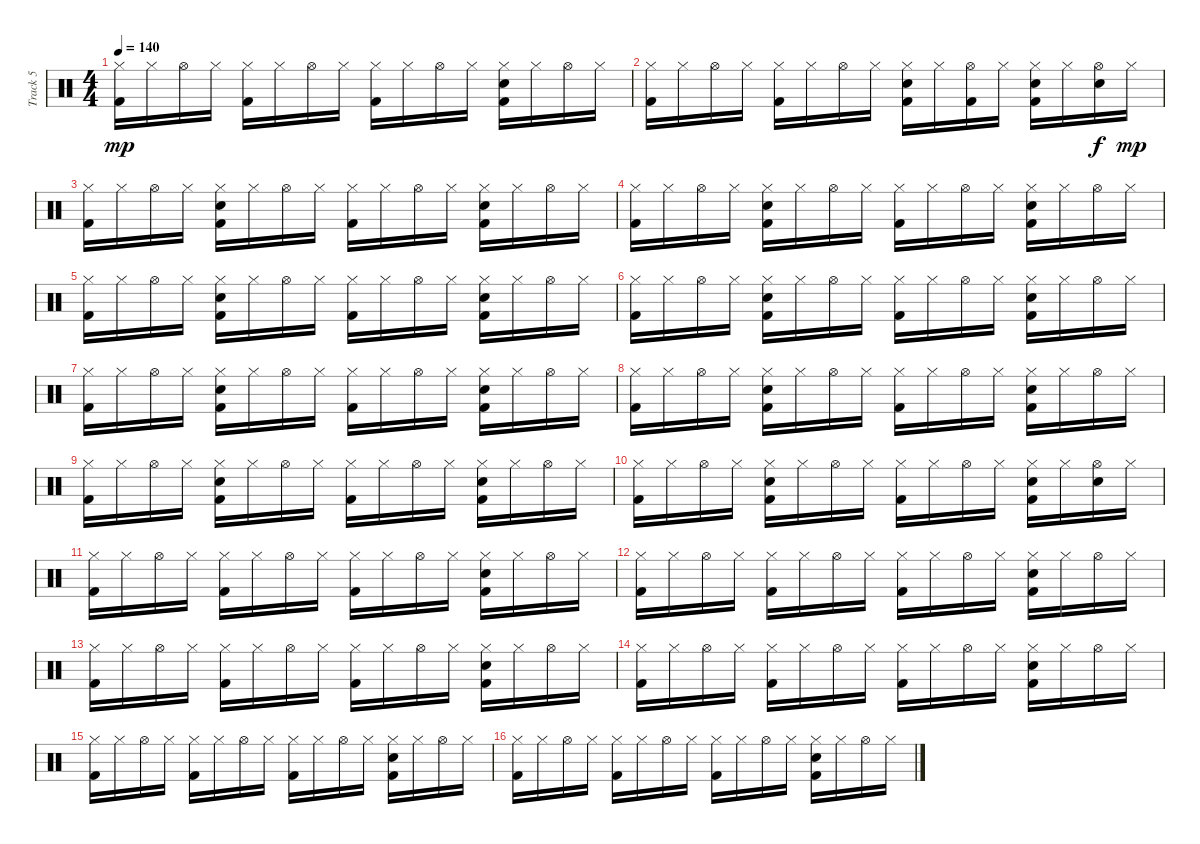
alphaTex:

\track ("Track 5" "Track 5") {instrument percussion}
\staff {score}
\articulation defaults
\ts (4 4)
\tempo 140
\clef neutral
\ks c
("Hi-Hat (closed)" "Kick (hit) 2").16{dy mp} "Hi-Hat (closed)".16 "Hi-Hat (open)".16 "Hi-Hat (closed)".16 ("Hi-Hat (closed)" "Kick (hit) 2").16 "Hi-Hat (closed)".16 "Hi-Hat (open)".16 "Hi-Hat (closed)".16 ("Hi-Hat (closed)" "Kick (hit) 2").16 "Hi-Hat (closed)".16 "Hi-Hat (open)".16 "Hi-Hat (closed)".16 ("Hi-Hat (closed)" "Electric Snare (hit)" "Kick (hit) 2").16 "Hi-Hat (closed)".16 "Hi-Hat (open)".16 "Hi-Hat (closed)".16 |
("Hi-Hat (closed)" "Kick (hit) 2").16 "Hi-Hat (closed)".16 "Hi-Hat (open)".16 "Hi-Hat (closed)".16 ("Hi-Hat (closed)" "Kick (hit) 2").16 "Hi-Hat (closed)".16 "Hi-Hat (open)".16 "Hi-Hat (closed)".16 ("Hi-Hat (closed)" "Electric Snare (hit)" "Kick (hit) 2").16 "Hi-Hat (closed)".16 ("Hi-Hat (open)" "Kick (hit) 2").16 "Hi-Hat (closed)".16 ("Hi-Hat (closed)" "Electric Snare (hit)" "Kick (hit) 2").16 "Hi-Hat (closed)".16 ("Hi-Hat (open)" "Electric Snare (hit)").16{dy f} "Hi-Hat (closed)".16{dy mp} |
("Hi-Hat (closed)" "Kick (hit) 2").16 "Hi-Hat (closed)".16 "Hi-Hat (open)".16 "Hi-Hat (closed)".16 ("Hi-Hat (closed)" "Electric Snare (hit)" "Kick (hit) 2").16 "Hi-Hat (closed)".16 "Hi-Hat (open)".16 "Hi-Hat (closed)".16 ("Hi-Hat (closed)" "Kick (hit) 2").16 "Hi-Hat (closed)".16 "Hi-Hat (open)".16 "Hi-Hat (closed)".16 ("Hi-Hat (closed)" "Electric Snare (hit)" "Kick (hit) 2").16 "Hi-Hat (closed)".16 "Hi-Hat (open)".16 "Hi-Hat (closed)".16 |
("Hi-Hat (closed)" "Kick (hit) 2").16 "Hi-Hat (closed)".16 "Hi-Hat (open)".16 "Hi-Hat (closed)".16 ("Hi-Hat (closed)" "Electric Snare (hit)" "Kick (hit) 2").16 "Hi-Hat (closed)".16 "Hi-Hat (open)".16 "Hi-Hat (closed)".16 ("Hi-Hat (closed)" "Kick (hit) 2").16 "Hi-Hat (closed)".16 "Hi-Hat (open)".16 "Hi-Hat (closed)".16 ("Hi-Hat (closed)" "Electric Snare (hit)" "Kick (hit) 2").16 "Hi-Hat (closed)".16 "Hi-Hat (open)".16 "Hi-Hat (closed)".16 |
("Hi-Hat (closed)" "Kick (hit) 2").16 "Hi-Hat (closed)".16 "Hi-Hat (open)".16 "Hi-Hat (closed)".16 ("Hi-Hat (closed)" "Electric Snare (hit)" "Kick (hit) 2").16 "Hi-Hat (closed)".16 "Hi-Hat (open)".16 "Hi-Hat (closed)".16 ("Hi-Hat (closed)" "Kick (hit) 2").16 "Hi-Hat (closed)".16 "Hi-Hat (open)".16 "Hi-Hat (closed)".16 ("Hi-Hat (closed)" "Electric Snare (hit)" "Kick (hit) 2").16 "Hi-Hat (closed)".16 "Hi-Hat (open)".16 "Hi-Hat (closed)".16 |
("Hi-Hat (closed)" "Kick (hit) 2").16 "Hi-Hat (closed)".16 "Hi-Hat (open)".16 "Hi-Hat (closed)".16 ("Hi-Hat (closed)" "Electric Snare (hit)" "Kick (hit) 2").16 "Hi-Hat (closed)".16 "Hi-Hat (open)".16 "Hi-Hat (closed)".16 ("Hi-Hat (closed)" "Kick (hit) 2").16 "Hi-Hat (closed)".16 "Hi-Hat (open)".16 "Hi-Hat (closed)".16 ("Hi-Hat (closed)" "Electric Snare (hit)" "Kick (hit) 2").16 "Hi-Hat (closed)".16 "Hi-Hat (open)".16 "Hi-Hat (closed)".16 |
("Hi-Hat (closed)" "Kick (hit) 2").16 "Hi-Hat (closed)".16 "Hi-Hat (open)".16 "Hi-Hat (closed)".16 ("Hi-Hat (closed)" "Electric Snare (hit)" "Kick (hit) 2").16 "Hi-Hat (closed)".16 "Hi-Hat (open)".16 "Hi-Hat (closed)".16 ("Hi-Hat (closed)" "Kick (hit) 2").16 "Hi-Hat (closed)".16 "Hi-Hat (open)".16 "Hi-Hat (closed)".16 ("Hi-Hat (closed)" "Electric Snare (hit)" "Kick (hit) 2").16 "Hi-Hat (closed)".16 "Hi-Hat (open)".16 "Hi-Hat (closed)".16 |
("Hi-Hat (closed)" "Kick (hit) 2").16 "Hi-Hat (closed)".16 "Hi-Hat (open)".16 "Hi-Hat (closed)".16 ("Hi-Hat (closed)" "Electric Snare (hit)" "Kick (hit) 2").16 "Hi-Hat (closed)".16 "Hi-Hat (open)".16 "Hi-Hat (closed)".16 ("Hi-Hat (closed)" "Kick (hit) 2").16 "Hi-Hat (closed)".16 "Hi-Hat (open)".16 "Hi-Hat (closed)".16 ("Hi-Hat (closed)" "Electric Snare (hit)" "Kick (hit) 2").16 "Hi-Hat (closed)".16 "Hi-Hat (open)".16 "Hi-Hat (closed)".16 |
("Hi-Hat (closed)" "Kick (hit) 2").16 "Hi-Hat (closed)".16 "Hi-Hat (open)".16 "Hi-Hat (closed)".16 ("Hi-Hat (closed)" "Electric Snare (hit)" "Kick (hit) 2").16 "Hi-Hat (closed)".16 "Hi-Hat (open)".16 "Hi-Hat (closed)".16 ("Hi-Hat (closed)" "Kick (hit) 2").16 "Hi-Hat (closed)".16 "Hi-Hat (open)".16 "Hi-Hat (closed)".16 ("Hi-Hat (closed)" "Electric Snare (hit)" "Kick (hit) 2").16 "Hi-Hat (closed)".16 "Hi-Hat (open)".16 "Hi-Hat (closed)".16 |
("Hi-Hat (closed)" "Kick (hit) 2").16 "Hi-Hat (closed)".16 "Hi-Hat (open)".16 "Hi-Hat (closed)".16 ("Hi-Hat (closed)" "Electric Snare (hit)" "Kick (hit) 2").16 "Hi-Hat (closed)".16 "Hi-Hat (open)".16 "Hi-Hat (closed)".16 ("Hi-Hat (closed)" "Kick (hit) 2").16 "Hi-Hat (closed)".16 "Hi-Hat (open)".16 "Hi-Hat (closed)".16 ("Hi-Hat (closed)" "Electric Snare (hit)" "Kick (hit) 2").16 "Hi-Hat (closed)".16 ("Hi-Hat (open)" "Electric Snare (hit)").16 "Hi-Hat (closed)".16 |
("Hi-Hat (closed)" "Kick (hit) 2").16 "Hi-Hat (closed)".16 "Hi-Hat (open)".16 "Hi-Hat (closed)".16 ("Hi-Hat (closed)" "Kick (hit) 2").16 "Hi-Hat (closed)".16 "Hi-Hat (open)".16 "Hi-Hat (closed)".16 ("Hi-Hat (closed)" "Kick (hit) 2").16 "Hi-Hat (closed)".16 "Hi-Hat (open)".16 "Hi-Hat (closed)".16 ("Hi-Hat (closed)" "Electric Snare (hit)" "Kick (hit) 2").16 "Hi-Hat (closed)".16 "Hi-Hat (open)".16 "Hi-Hat (closed)".16 |
("Hi-Hat (closed)" "Kick (hit) 2").16 "Hi-Hat (closed)".16 "Hi-Hat (open)".16 "Hi-Hat (closed)".16 ("Hi-Hat (closed)" "Kick (hit) 2").16 "Hi-Hat (closed)".16 "Hi-Hat (open)".16 "Hi-Hat (closed)".16 ("Hi-Hat (closed)" "Kick (hit) 2").16 "Hi-Hat (closed)".16 "Hi-Hat (open)".16 "Hi-Hat (closed)".16 ("Hi-Hat (closed)" "Electric Snare (hit)" "Kick (hit) 2").16 "Hi-Hat (closed)".16 "Hi-Hat (open)".16 "Hi-Hat (closed)".16 |
("Hi-Hat (closed)" "Kick (hit) 2").16 "Hi-Hat (closed)".16 "Hi-Hat (open)".16 "Hi-Hat (closed)".16 ("Hi-Hat (closed)" "Kick (hit) 2").16 "Hi-Hat (closed)".16 "Hi-Hat (open)".16 "Hi-Hat (closed)".16 ("Hi-Hat (closed)" "Kick (hit) 2").16 "Hi-Hat (closed)".16 "Hi-Hat (open)".16 "Hi-Hat (closed)".16 ("Hi-Hat (closed)" "Electric Snare (hit)" "Kick (hit) 2").16 "Hi-Hat (closed)".16 "Hi-Hat (open)".16 "Hi-Hat (closed)".16 |
("Hi-Hat (closed)" "Kick (hit) 2").16 "Hi-Hat (closed)".16 "Hi-Hat (open)".16 "Hi-Hat (closed)".16 ("Hi-Hat (closed)" "Kick (hit) 2").16 "Hi-Hat (closed)".16 "Hi-Hat (open)".16 "Hi-Hat (closed)".16 ("Hi-Hat (closed)" "Kick (hit) 2").16 "Hi-Hat (closed)".16 "Hi-Hat (open)".16 "Hi-Hat (closed)".16 ("Hi-Hat (closed)" "Electric Snare (hit)" "Kick (hit) 2").16 "Hi-Hat (closed)".16 "Hi-Hat (open)".16 "Hi-Hat (closed)".16 |
("Hi-Hat (closed)" "Kick (hit) 2").16 "Hi-Hat (closed)".16 "Hi-Hat (open)".16 "Hi-Hat (closed)".16 ("Hi-Hat (closed)" "Kick (hit) 2").16 "Hi-Hat (closed)".16 "Hi-Hat (open)".16 "Hi-Hat (closed)".16 ("Hi-Hat (closed)" "Kick (hit) 2").16 "Hi-Hat (closed)".16 "Hi-Hat (open)".16 "Hi-Hat (closed)".16 ("Hi-Hat (closed)" "Electric Snare (hit)" "Kick (hit) 2").16 "Hi-Hat (closed)".16 "Hi-Hat (open)".16 "Hi-Hat (closed)".16 |
("Hi-Hat (closed)" "Kick (hit) 2").16 "Hi-Hat (closed)".16 "Hi-Hat (open)".16 "Hi-Hat (closed)".16 ("Hi-Hat (closed)" "Kick (hit) 2").16 "Hi-Hat (closed)".16 "Hi-Hat (open)".16 "Hi-Hat (closed)".16 ("Hi-Hat (closed)" "Kick (hit) 2").16 "Hi-Hat (closed)".16 "Hi-Hat (open)".16 "Hi-Hat (closed)".16 ("Hi-Hat (closed)" "Electric Snare (hit)" "Kick (hit) 2").16 "Hi-Hat (closed)".16 "Hi-Hat (open)".16 "Hi-Hat (closed)".16
